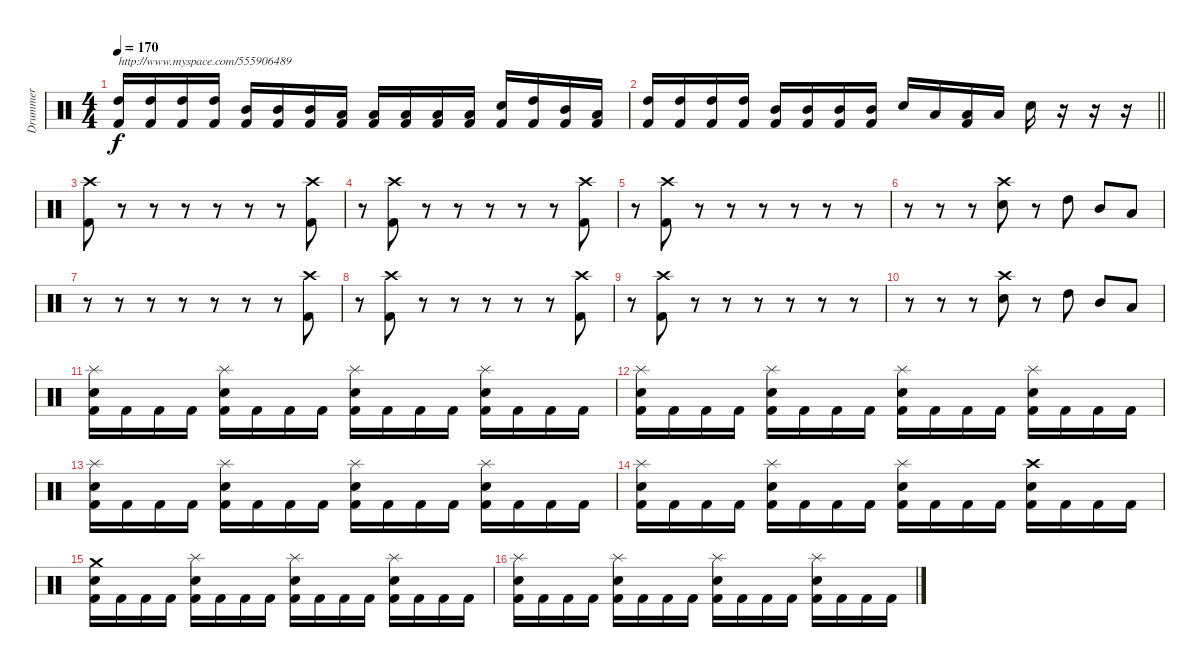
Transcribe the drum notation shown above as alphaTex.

\track ("Drummer" "Drummer") {instrument percussion}
\staff {score}
\articulation defaults
\ts (4 4)
\tempo 170
\clef neutral
\ks c
("High Tom (hit)" "Kick (hit) 2").16{txt "http://www.myspace.com/555906489" dy f} ("High Tom (hit)" "Kick (hit) 2").16 ("High Tom (hit)" "Kick (hit) 2").16 ("High Tom (hit)" "Kick (hit) 2").16 ("Mid Tom (hit)" "Kick (hit) 2").16 ("Mid Tom (hit)" "Kick (hit) 2").16 ("Mid Tom (hit)" "Kick (hit) 2").16 ("Low Tom (hit)" "Kick (hit) 2").16 ("Low Tom (hit)" "Kick (hit) 2").16 ("Low Tom (hit)" "Kick (hit) 2").16 ("Low Tom (hit)" "Kick (hit) 2").16 ("Low Tom (hit)" "Kick (hit) 2").16 ("Snare (hit) 2" "Kick (hit) 2").16 ("High Tom (hit)" "Kick (hit) 2").16 ("Mid Tom (hit)" "Kick (hit) 2").16 ("Low Tom (hit)" "Kick (hit) 2").16 |
\barLineRight lightlight
("High Tom (hit)" "Kick (hit) 2").16 ("High Tom (hit)" "Kick (hit) 2").16 ("High Tom (hit)" "Kick (hit) 2").16 ("High Tom (hit)" "Kick (hit) 2").16 ("Mid Tom (hit)" "Kick (hit) 2").16 ("Mid Tom (hit)" "Kick (hit) 2").16 ("Mid Tom (hit)" "Kick (hit) 2").16 ("Mid Tom (hit)" "Kick (hit) 2").16 "Snare (hit) 2".16 "Low Tom (hit)".16 ("Low Tom (hit)" "Kick (hit) 2").16 "Low Tom (hit)".16 "Snare (hit) 2".16 r.16 r.16 r.16 |
("Crash high (hit)" "Kick (hit) 2").8 r.8 r.8 r.8 r.8 r.8 r.8 ("Crash high (hit)" "Kick (hit) 2").8 |
r.8 ("Crash high (hit)" "Kick (hit) 2").8 r.8 r.8 r.8 r.8 r.8 ("Crash high (hit)" "Kick (hit) 2").8 |
r.8 ("Crash high (hit)" "Kick (hit) 2").8 r.8 r.8 r.8 r.8 r.8 r.8 |
r.8 r.8 r.8 ("Crash high (hit)" "Snare (hit) 2").8 r.8 "High Tom (hit)".8 "Mid Tom (hit)".8 "Low Tom (hit)".8 |
r.8 r.8 r.8 r.8 r.8 r.8 r.8 ("Crash high (hit)" "Kick (hit) 2").8 |
r.8 ("Crash high (hit)" "Kick (hit) 2").8 r.8 r.8 r.8 r.8 r.8 ("Crash high (hit)" "Kick (hit) 2").8 |
r.8 ("Crash high (hit)" "Kick (hit) 2").8 r.8 r.8 r.8 r.8 r.8 r.8 |
r.8 r.8 r.8 ("Crash high (hit)" "Snare (hit) 2").8 r.8 "High Tom (hit)".8 "Mid Tom (hit)".8 "Low Tom (hit)".8 |
("Splash (hit)" "Snare (hit) 2" "Kick (hit) 2").16 "Kick (hit) 2".16 "Kick (hit) 2".16 "Kick (hit) 2".16 ("Splash (hit)" "Snare (hit) 2" "Kick (hit) 2").16 "Kick (hit) 2".16 "Kick (hit) 2".16 "Kick (hit) 2".16 ("Splash (hit)" "Snare (hit) 2" "Kick (hit) 2").16 "Kick (hit) 2".16 "Kick (hit) 2".16 "Kick (hit) 2".16 ("Splash (hit)" "Snare (hit) 2" "Kick (hit) 2").16 "Kick (hit) 2".16 "Kick (hit) 2".16 "Kick (hit) 2".16 |
("Splash (hit)" "Snare (hit) 2" "Kick (hit) 2").16 "Kick (hit) 2".16 "Kick (hit) 2".16 "Kick (hit) 2".16 ("Splash (hit)" "Snare (hit) 2" "Kick (hit) 2").16 "Kick (hit) 2".16 "Kick (hit) 2".16 "Kick (hit) 2".16 ("Splash (hit)" "Snare (hit) 2" "Kick (hit) 2").16 "Kick (hit) 2".16 "Kick (hit) 2".16 "Kick (hit) 2".16 ("Splash (hit)" "Snare (hit) 2" "Kick (hit) 2").16 "Kick (hit) 2".16 "Kick (hit) 2".16 "Kick (hit) 2".16 |
("Splash (hit)" "Snare (hit) 2" "Kick (hit) 2").16 "Kick (hit) 2".16 "Kick (hit) 2".16 "Kick (hit) 2".16 ("Splash (hit)" "Snare (hit) 2" "Kick (hit) 2").16 "Kick (hit) 2".16 "Kick (hit) 2".16 "Kick (hit) 2".16 ("Splash (hit)" "Snare (hit) 2" "Kick (hit) 2").16 "Kick (hit) 2".16 "Kick (hit) 2".16 "Kick (hit) 2".16 ("Splash (hit)" "Snare (hit) 2" "Kick (hit) 2").16 "Kick (hit) 2".16 "Kick (hit) 2".16 "Kick (hit) 2".16 |
("Splash (hit)" "Snare (hit) 2" "Kick (hit) 2").16 "Kick (hit) 2".16 "Kick (hit) 2".16 "Kick (hit) 2".16 ("Splash (hit)" "Snare (hit) 2" "Kick (hit) 2").16 "Kick (hit) 2".16 "Kick (hit) 2".16 "Kick (hit) 2".16 ("Splash (hit)" "Snare (hit) 2" "Kick (hit) 2").16 "Kick (hit) 2".16 "Kick (hit) 2".16 "Kick (hit) 2".16 ("Crash high (hit)" "Snare (hit) 2" "Kick (hit) 2").16 "Kick (hit) 2".16 "Kick (hit) 2".16 "Kick (hit) 2".16 |
("Crash medium (hit)" "Snare (hit) 2" "Kick (hit) 2").16 "Kick (hit) 2".16 "Kick (hit) 2".16 "Kick (hit) 2".16 ("Splash (hit)" "Snare (hit) 2" "Kick (hit) 2").16 "Kick (hit) 2".16 "Kick (hit) 2".16 "Kick (hit) 2".16 ("Splash (hit)" "Snare (hit) 2" "Kick (hit) 2").16 "Kick (hit) 2".16 "Kick (hit) 2".16 "Kick (hit) 2".16 ("Splash (hit)" "Snare (hit) 2" "Kick (hit) 2").16 "Kick (hit) 2".16 "Kick (hit) 2".16 "Kick (hit) 2".16 |
("Splash (hit)" "Snare (hit) 2" "Kick (hit) 2").16 "Kick (hit) 2".16 "Kick (hit) 2".16 "Kick (hit) 2".16 ("Splash (hit)" "Snare (hit) 2" "Kick (hit) 2").16 "Kick (hit) 2".16 "Kick (hit) 2".16 "Kick (hit) 2".16 ("Splash (hit)" "Snare (hit) 2" "Kick (hit) 2").16 "Kick (hit) 2".16 "Kick (hit) 2".16 "Kick (hit) 2".16 ("Splash (hit)" "Snare (hit) 2" "Kick (hit) 2").16 "Kick (hit) 2".16 "Kick (hit) 2".16 "Kick (hit) 2".16
